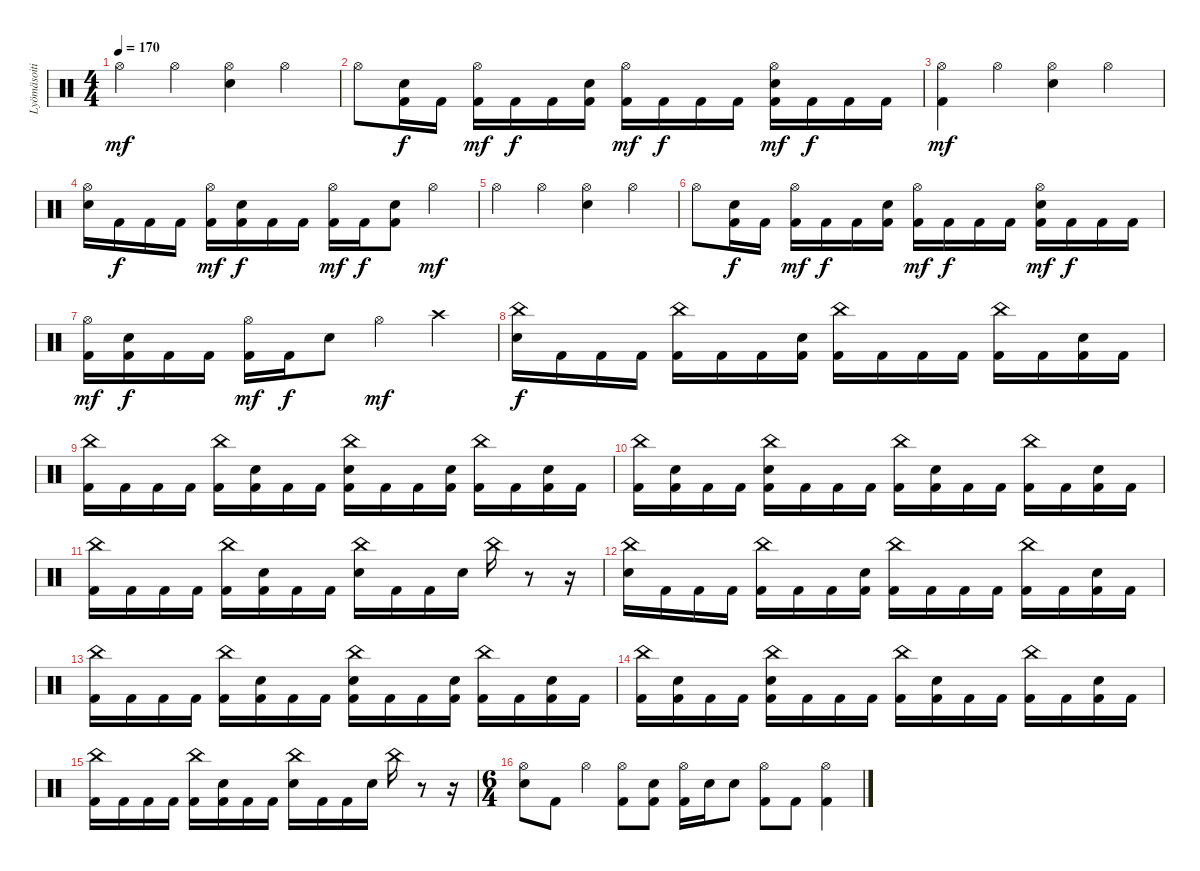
\track ("Lyömäsoitin" "Lyömäsoiti") {instrument percussion}
\staff {score}
\articulation defaults
\ts (4 4)
\tempo 170
\clef neutral
\ks c "Hi-Hat (open)".4{dy mf} "Hi-Hat (open)".4
("Hi-Hat (open)" "Electric Snare (hit)").4 "Hi-Hat (open)".4 |
"Hi-Hat (open)".8 ("Kick (hit) 2" "Electric Snare (hit)").16{dy f} "Kick (hit) 2".16 ("Kick (hit) 2" "Hi-Hat (open)").16{dy mf} "Kick (hit) 2".16{dy f} "Kick (hit) 2".16 ("Kick (hit) 2" "Electric Snare (hit)").16 ("Kick (hit) 2" "Hi-Hat (open)").16{dy mf} "Kick (hit) 2".16{dy f} "Kick (hit) 2".16 "Kick (hit) 2".16 ("Kick (hit) 2" "Hi-Hat (open)" "Electric Snare (hit)").16{dy mf} "Kick (hit) 2".16{dy f} "Kick (hit) 2".16 "Kick (hit) 2".16 |
("Kick (hit) 2" "Hi-Hat (open)").4{dy mf} "Hi-Hat (open)".4 ("Hi-Hat (open)" "Electric Snare (hit)").4 "Hi-Hat (open)".4 |
("Hi-Hat (open)" "Electric Snare (hit)").16 "Kick (hit) 2".16{dy f} "Kick (hit) 2".16 "Kick (hit) 2".16 ("Hi-Hat (open)" "Kick (hit) 2").16{dy mf} ("Electric Snare (hit)" "Kick (hit) 2").16{dy f} "Kick (hit) 2".16 "Kick (hit) 2".16 ("Hi-Hat (open)" "Kick (hit) 2").16{dy mf} "Kick (hit) 2".16{dy f} ("Electric Snare (hit)" "Kick (hit) 2").8 "Hi-Hat (open)".4{dy mf} |
"Hi-Hat (open)".4 "Hi-Hat (open)".4 ("Hi-Hat (open)" "Electric Snare (hit)").4 "Hi-Hat (open)".4 |
"Hi-Hat (open)".8 ("Kick (hit) 2" "Electric Snare (hit)").16{dy f} "Kick (hit) 2".16 ("Kick (hit) 2" "Hi-Hat (open)").16{dy mf} "Kick (hit) 2".16{dy f} "Kick (hit) 2".16 ("Kick (hit) 2" "Electric Snare (hit)").16 ("Kick (hit) 2" "Hi-Hat (open)").16{dy mf} "Kick (hit) 2".16{dy f} "Kick (hit) 2".16 "Kick (hit) 2".16 ("Kick (hit) 2" "Hi-Hat (open)" "Electric Snare (hit)").16{dy mf} "Kick (hit) 2".16{dy f} "Kick (hit) 2".16 "Kick (hit) 2".16 |
("Hi-Hat (open)" "Kick (hit) 2").16{dy mf} ("Kick (hit) 2" "Electric Snare (hit)").16{dy f} "Kick (hit) 2".16 "Kick (hit) 2".16 ("Kick (hit) 2" "Hi-Hat (open)").16{dy mf} "Kick (hit) 2".16{dy f} "Electric Snare (hit)".8 "Hi-Hat (open)".4{dy mf} "Crash high (hit)".4 |
("China (hit)" "Electric Snare (hit)").16{dy f} "Kick (hit) 2".16 "Kick (hit) 2".16 "Kick (hit) 2".16 ("China (hit)" "Kick (hit) 2").16 "Kick (hit) 2".16 "Kick (hit) 2".16 ("Electric Snare (hit)" "Kick (hit) 2").16 ("China (hit)" "Kick (hit) 2").16 "Kick (hit) 2".16 "Kick (hit) 2".16 "Kick (hit) 2".16 ("China (hit)" "Kick (hit) 2").16 "Kick (hit) 2".16 ("Electric Snare (hit)" "Kick (hit) 2").16 "Kick (hit) 2".16 |
("China (hit)" "Kick (hit) 2").16 "Kick (hit) 2".16 "Kick (hit) 2".16 "Kick (hit) 2".16 ("China (hit)" "Kick (hit) 2").16 ("Electric Snare (hit)" "Kick (hit) 2").16 "Kick (hit) 2".16 "Kick (hit) 2".16 ("China (hit)" "Electric Snare (hit)" "Kick (hit) 2").16 "Kick (hit) 2".16 "Kick (hit) 2".16 ("Electric Snare (hit)" "Kick (hit) 2").16 ("China (hit)" "Kick (hit) 2").16 "Kick (hit) 2".16 ("Electric Snare (hit)" "Kick (hit) 2").16 "Kick (hit) 2".16 |
("China (hit)" "Kick (hit) 2").16 ("Electric Snare (hit)" "Kick (hit) 2").16 "Kick (hit) 2".16 "Kick (hit) 2".16 ("Kick (hit) 2" "China (hit)" "Electric Snare (hit)").16 "Kick (hit) 2".16 "Kick (hit) 2".16 "Kick (hit) 2".16 ("Kick (hit) 2" "China (hit)").16 ("Kick (hit) 2" "Electric Snare (hit)").16 "Kick (hit) 2".16 "Kick (hit) 2".16 ("Kick (hit) 2" "China (hit)").16 "Kick (hit) 2".16 ("Kick (hit) 2" "Electric Snare (hit)").16 "Kick (hit) 2".16 |
("Kick (hit) 2" "China (hit)").16 "Kick (hit) 2".16 "Kick (hit) 2".16 "Kick (hit) 2".16 ("Kick (hit) 2" "China (hit)").16 ("Kick (hit) 2" "Electric Snare (hit)").16 "Kick (hit) 2".16 "Kick (hit) 2".16 ("China (hit)" "Electric Snare (hit)").16 "Kick (hit) 2".16 "Kick (hit) 2".16 "Electric Snare (hit)".16 "China (hit)".16 r.8 r.16 |
("China (hit)" "Electric Snare (hit)").16 "Kick (hit) 2".16 "Kick (hit) 2".16 "Kick (hit) 2".16 ("China (hit)" "Kick (hit) 2").16 "Kick (hit) 2".16 "Kick (hit) 2".16 ("Electric Snare (hit)" "Kick (hit) 2").16 ("China (hit)" "Kick (hit) 2").16 "Kick (hit) 2".16 "Kick (hit) 2".16 "Kick (hit) 2".16 ("China (hit)" "Kick (hit) 2").16 "Kick (hit) 2".16 ("Electric Snare (hit)" "Kick (hit) 2").16 "Kick (hit) 2".16 |
("China (hit)" "Kick (hit) 2").16 "Kick (hit) 2".16 "Kick (hit) 2".16 "Kick (hit) 2".16 ("China (hit)" "Kick (hit) 2").16 ("Electric Snare (hit)" "Kick (hit) 2").16 "Kick (hit) 2".16 "Kick (hit) 2".16 ("China (hit)" "Electric Snare (hit)" "Kick (hit) 2").16 "Kick (hit) 2".16 "Kick (hit) 2".16 ("Electric Snare (hit)" "Kick (hit) 2").16 ("China (hit)" "Kick (hit) 2").16 "Kick (hit) 2".16 ("Electric Snare (hit)" "Kick (hit) 2").16 "Kick (hit) 2".16 |
("China (hit)" "Kick (hit) 2").16 ("Electric Snare (hit)" "Kick (hit) 2").16 "Kick (hit) 2".16 "Kick (hit) 2".16 ("Kick (hit) 2" "China (hit)" "Electric Snare (hit)").16 "Kick (hit) 2".16 "Kick (hit) 2".16 "Kick (hit) 2".16 ("Kick (hit) 2" "China (hit)").16 ("Kick (hit) 2" "Electric Snare (hit)").16 "Kick (hit) 2".16 "Kick (hit) 2".16 ("Kick (hit) 2" "China (hit)").16 "Kick (hit) 2".16 ("Kick (hit) 2" "Electric Snare (hit)").16 "Kick (hit) 2".16 |
("Kick (hit) 2" "China (hit)").16 "Kick (hit) 2".16 "Kick (hit) 2".16 "Kick (hit) 2".16 ("Kick (hit) 2" "China (hit)").16 ("Kick (hit) 2" "Electric Snare (hit)").16 "Kick (hit) 2".16 "Kick (hit) 2".16 ("China (hit)" "Electric Snare (hit)").16 "Kick (hit) 2".16 "Kick (hit) 2".16 "Electric Snare (hit)".16 "China (hit)".16 r.8 r.16 |
\ts (6 4)
("Hi-Hat (open)" "Electric Snare (hit)").8 "Kick (hit) 2".8 "Hi-Hat (open)".4 ("Kick (hit) 2" "Hi-Hat (open)").8 ("Electric Snare (hit)" "Kick (hit) 2").8 ("Kick (hit) 2" "Hi-Hat (open)").16 "Electric Snare (hit)".16 "Electric Snare (hit)".8 ("Hi-Hat (open)" "Kick (hit) 2").8 "Kick (hit) 2".8 ("Hi-Hat (open)" "Kick (hit) 2").4
